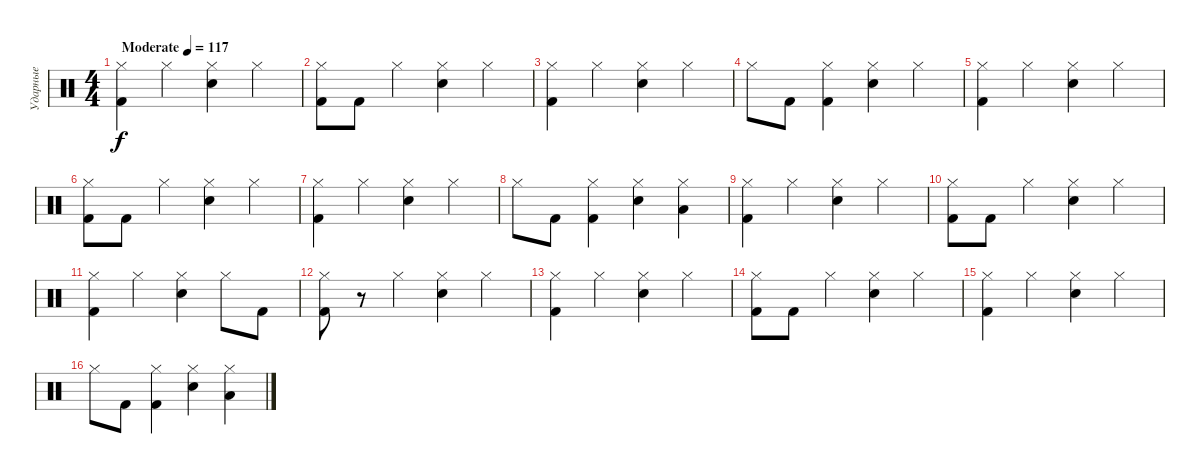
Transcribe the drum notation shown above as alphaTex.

\track ("Ударные" "Ударные") {instrument percussion}
\staff {score}
\articulation defaults
\ts (4 4)
\tempo (117 "Moderate")
\clef neutral
\ks c
("Hi-Hat (closed)" "Kick (hit) 2").4{dy f} "Hi-Hat (closed)".4 ("Hi-Hat (closed)" "Electric Snare (hit)").4 "Hi-Hat (closed)".4 |
("Hi-Hat (closed)" "Kick (hit) 2").8 "Kick (hit) 2".8 "Hi-Hat (closed)".4 ("Hi-Hat (closed)" "Electric Snare (hit)").4 "Hi-Hat (closed)".4 |
("Hi-Hat (closed)" "Kick (hit) 2").4 "Hi-Hat (closed)".4 ("Hi-Hat (closed)" "Electric Snare (hit)").4 "Hi-Hat (closed)".4 |
"Hi-Hat (closed)".8 "Kick (hit) 2".8 ("Hi-Hat (closed)" "Kick (hit) 2").4 ("Hi-Hat (closed)" "Electric Snare (hit)").4 "Hi-Hat (closed)".4 |
("Hi-Hat (closed)" "Kick (hit) 2").4 "Hi-Hat (closed)".4 ("Hi-Hat (closed)" "Electric Snare (hit)").4 "Hi-Hat (closed)".4 |
("Hi-Hat (closed)" "Kick (hit) 2").8 "Kick (hit) 2".8 "Hi-Hat (closed)".4 ("Hi-Hat (closed)" "Electric Snare (hit)").4 "Hi-Hat (closed)".4 |
("Hi-Hat (closed)" "Kick (hit) 2").4 "Hi-Hat (closed)".4 ("Hi-Hat (closed)" "Electric Snare (hit)").4 "Hi-Hat (closed)".4 |
"Hi-Hat (closed)".8 "Kick (hit) 2".8 ("Hi-Hat (closed)" "Kick (hit) 2").4 ("Hi-Hat (closed)" "Electric Snare (hit)").4 ("Hi-Hat (closed)" "Low Floor Tom (hit)").4 |
("Hi-Hat (closed)" "Kick (hit) 2").4 "Hi-Hat (closed)".4 ("Hi-Hat (closed)" "Electric Snare (hit)").4 "Hi-Hat (closed)".4 |
("Hi-Hat (closed)" "Kick (hit) 2").8 "Kick (hit) 2".8 "Hi-Hat (closed)".4 ("Hi-Hat (closed)" "Electric Snare (hit)").4 "Hi-Hat (closed)".4 |
("Hi-Hat (closed)" "Kick (hit) 2").4 "Hi-Hat (closed)".4 ("Hi-Hat (closed)" "Electric Snare (hit)").4 "Hi-Hat (closed)".8 "Kick (hit) 2".8 |
("Hi-Hat (closed)" "Kick (hit) 2").8 r.8 "Hi-Hat (closed)".4 ("Hi-Hat (closed)" "Electric Snare (hit)").4 "Hi-Hat (closed)".4 |
("Hi-Hat (closed)" "Kick (hit) 2").4 "Hi-Hat (closed)".4 ("Hi-Hat (closed)" "Electric Snare (hit)").4 "Hi-Hat (closed)".4 |
("Hi-Hat (closed)" "Kick (hit) 2").8 "Kick (hit) 2".8 "Hi-Hat (closed)".4 ("Hi-Hat (closed)" "Electric Snare (hit)").4 "Hi-Hat (closed)".4 |
("Hi-Hat (closed)" "Kick (hit) 2").4 "Hi-Hat (closed)".4 ("Hi-Hat (closed)" "Electric Snare (hit)").4 "Hi-Hat (closed)".4 |
"Hi-Hat (closed)".8 "Kick (hit) 2".8 ("Hi-Hat (closed)" "Kick (hit) 2").4 ("Hi-Hat (closed)" "Electric Snare (hit)").4 ("Hi-Hat (closed)" "Low Floor Tom (hit)").4
